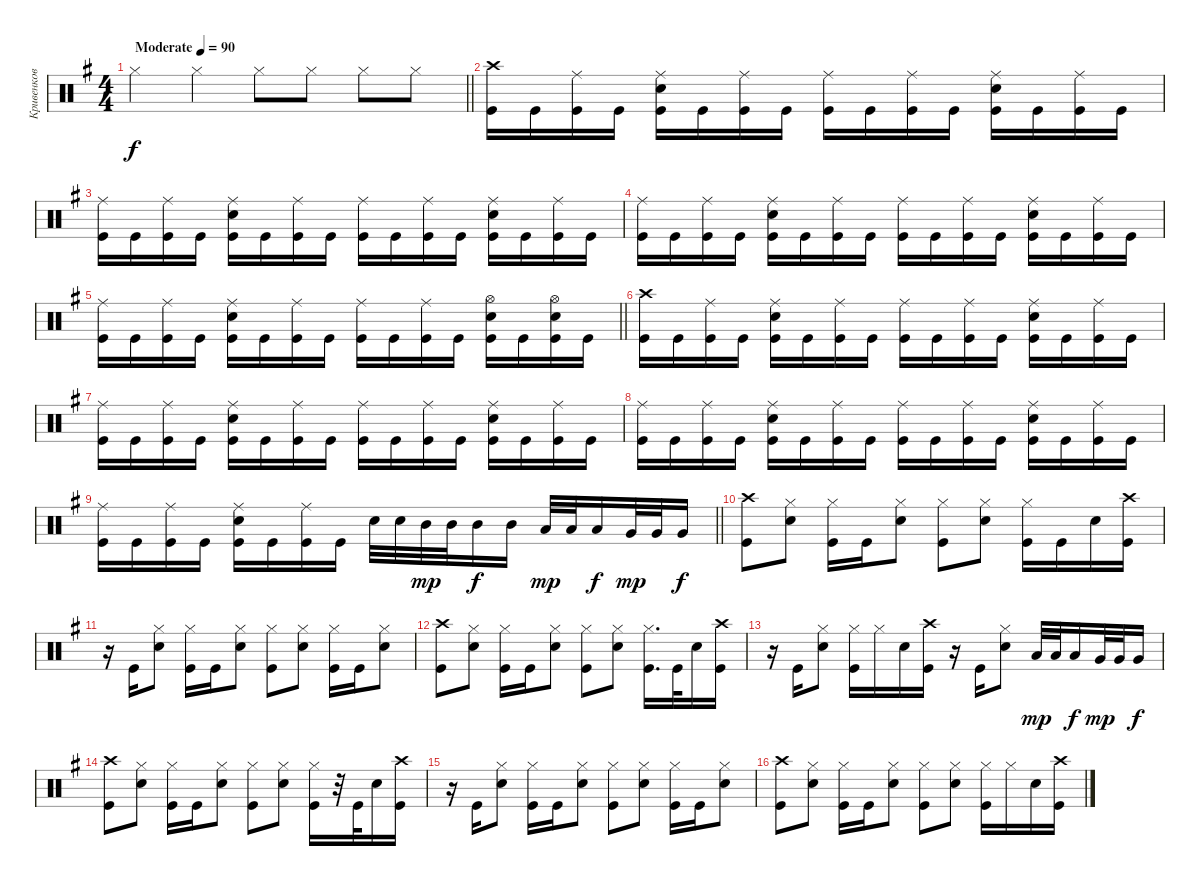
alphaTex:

\track ("Кривенков" "Кривенков") {instrument percussion}
\staff {score}
\articulation defaults
\ts (4 4)
\tempo (90 "Moderate")
\clef neutral
\barLineRight lightlight
\ks eminor "Hi-Hat (closed)".4{dy f} "Hi-Hat (closed)".4 "Hi-Hat (closed)".8 "Hi-Hat (closed)".8 "Hi-Hat (closed)".8 "Hi-Hat (closed)".8
|
("Kick (hit)" "Crash high (hit)").16 "Kick (hit)".16 ("Kick (hit)" "Ride (middle)").16 "Kick (hit)".16 ("Kick (hit)" "Ride (middle)" "Snare (hit) 2").16 "Kick (hit)".16 ("Kick (hit)" "Ride (middle)").16 "Kick (hit)".16 ("Kick (hit)" "Ride (middle)").16 "Kick (hit)".16 ("Kick (hit)" "Ride (middle)").16 "Kick (hit)".16 ("Kick (hit)" "Ride (middle)" "Snare (hit) 2").16 "Kick (hit)".16 ("Kick (hit)" "Ride (middle)").16 "Kick (hit)".16 |
("Kick (hit)" "Ride (middle)").16 "Kick (hit)".16 ("Kick (hit)" "Ride (middle)").16 "Kick (hit)".16 ("Kick (hit)" "Ride (middle)" "Snare (hit) 2").16 "Kick (hit)".16 ("Kick (hit)" "Ride (middle)").16 "Kick (hit)".16 ("Kick (hit)" "Ride (middle)").16 "Kick (hit)".16 ("Kick (hit)" "Ride (middle)").16 "Kick (hit)".16 ("Kick (hit)" "Ride (middle)" "Snare (hit) 2").16 "Kick (hit)".16 ("Kick (hit)" "Ride (middle)").16 "Kick (hit)".16 |
("Kick (hit)" "Ride (middle)").16 "Kick (hit)".16 ("Kick (hit)" "Ride (middle)").16 "Kick (hit)".16 ("Kick (hit)" "Ride (middle)" "Snare (hit) 2").16 "Kick (hit)".16 ("Kick (hit)" "Ride (middle)").16 "Kick (hit)".16 ("Kick (hit)" "Ride (middle)").16 "Kick (hit)".16 ("Kick (hit)" "Ride (middle)").16 "Kick (hit)".16 ("Kick (hit)" "Ride (middle)" "Snare (hit) 2").16 "Kick (hit)".16 ("Kick (hit)" "Ride (middle)").16 "Kick (hit)".16 |
\barLineRight lightlight
("Kick (hit)" "Ride (middle)").16 "Kick (hit)".16 ("Kick (hit)" "Ride (middle)").16 "Kick (hit)".16 ("Kick (hit)" "Ride (middle)" "Snare (hit) 2").16 "Kick (hit)".16 ("Kick (hit)" "Ride (middle)").16 "Kick (hit)".16 ("Kick (hit)" "Ride (middle)").16 "Kick (hit)".16 ("Kick (hit)" "Ride (middle)").16 "Kick (hit)".16 ("Kick (hit)" "Hi-Hat (open)" "Snare (hit) 2").16 "Kick (hit)".16 ("Kick (hit)" "Snare (hit) 2" "Hi-Hat (open)").16 "Kick (hit)".16 |
("Kick (hit)" "Crash high (hit)").16 "Kick (hit)".16 ("Kick (hit)" "Ride (middle)").16 "Kick (hit)".16 ("Kick (hit)" "Ride (middle)" "Snare (hit) 2").16 "Kick (hit)".16 ("Kick (hit)" "Ride (middle)").16 "Kick (hit)".16 ("Kick (hit)" "Ride (middle)").16 "Kick (hit)".16 ("Kick (hit)" "Ride (middle)").16 "Kick (hit)".16 ("Kick (hit)" "Ride (middle)" "Snare (hit) 2").16 "Kick (hit)".16 ("Kick (hit)" "Ride (middle)").16 "Kick (hit)".16 |
("Kick (hit)" "Ride (middle)").16 "Kick (hit)".16 ("Kick (hit)" "Ride (middle)").16 "Kick (hit)".16 ("Kick (hit)" "Ride (middle)" "Snare (hit) 2").16 "Kick (hit)".16 ("Kick (hit)" "Ride (middle)").16 "Kick (hit)".16 ("Kick (hit)" "Ride (middle)").16 "Kick (hit)".16 ("Kick (hit)" "Ride (middle)").16 "Kick (hit)".16 ("Kick (hit)" "Ride (middle)" "Snare (hit) 2").16 "Kick (hit)".16 ("Kick (hit)" "Ride (middle)").16 "Kick (hit)".16 |
("Kick (hit)" "Ride (middle)").16 "Kick (hit)".16 ("Kick (hit)" "Ride (middle)").16 "Kick (hit)".16 ("Kick (hit)" "Ride (middle)" "Snare (hit) 2").16 "Kick (hit)".16 ("Kick (hit)" "Ride (middle)").16 "Kick (hit)".16 ("Kick (hit)" "Ride (middle)").16 "Kick (hit)".16 ("Kick (hit)" "Ride (middle)").16 "Kick (hit)".16 ("Kick (hit)" "Ride (middle)" "Snare (hit) 2").16 "Kick (hit)".16 ("Kick (hit)" "Ride (middle)").16 "Kick (hit)".16 |
\barLineRight lightlight
("Kick (hit)" "Ride (middle)").16 "Kick (hit)".16 ("Kick (hit)" "Ride (middle)").16 "Kick (hit)".16 ("Kick (hit)" "Ride (middle)" "Snare (hit) 2").16 "Kick (hit)".16 ("Kick (hit)" "Ride (middle)").16 "Kick (hit)".16 "Snare (hit) 2".32 "Snare (hit) 2".32 "Mid Tom (hit)".32{dy mp} "Mid Tom (hit)".32 "Mid Tom (hit)".16{dy f} "Mid Tom (hit)".16 "Low Tom (hit)".32{dy mp} "Low Tom (hit)".32 "Low Tom (hit)".16{dy f} "Very Low Tom (hit)".32{dy mp} "Very Low Tom (hit)".32 "Very Low Tom (hit)".16{dy f} |
("Kick (hit)" "Crash high (hit)").8 ("Snare (hit) 2" "Hi-Hat (closed)").8 ("Kick (hit)" "Hi-Hat (closed)").16 "Kick (hit)".16 ("Snare (hit) 2" "Hi-Hat (closed)").8 ("Kick (hit)" "Hi-Hat (closed)").8 ("Snare (hit) 2" "Hi-Hat (closed)").8 ("Kick (hit)" "Hi-Hat (closed)").16 "Kick (hit)".16 "Snare (hit) 2".16 ("Kick (hit)" "Crash high (hit)").16 |
r.16 "Kick (hit)".16 ("Snare (hit) 2" "Hi-Hat (closed)").8 ("Kick (hit)" "Hi-Hat (closed)").16 "Kick (hit)".16 ("Snare (hit) 2" "Hi-Hat (closed)").8 ("Kick (hit)" "Hi-Hat (closed)").8 ("Snare (hit) 2" "Hi-Hat (closed)").8 ("Kick (hit)" "Hi-Hat (closed)").16 "Kick (hit)".16 ("Snare (hit) 2" "Hi-Hat (closed)").8 |
("Kick (hit)" "Crash high (hit)").8 ("Snare (hit) 2" "Hi-Hat (closed)").8 ("Kick (hit)" "Hi-Hat (closed)").16 "Kick (hit)".16 ("Snare (hit) 2" "Hi-Hat (closed)").8 ("Kick (hit)" "Hi-Hat (closed)").8 ("Snare (hit) 2" "Hi-Hat (closed)").8 ("Kick (hit)" "Hi-Hat (closed)").16{d} "Kick (hit)".32 "Snare (hit) 2".16 ("Kick (hit)" "Crash high (hit)").16 |
r.16 "Kick (hit)".16 ("Snare (hit) 2" "Hi-Hat (closed)").8 ("Kick (hit)" "Hi-Hat (closed)").16 "Hi-Hat (closed)".16 "Snare (hit) 2".16 ("Kick (hit)" "Crash high (hit)").16 r.16 "Kick (hit)".16 ("Snare (hit) 2" "Hi-Hat (closed)").8 "Low Tom (hit)".32{dy mp} "Low Tom (hit)".32 "Low Tom (hit)".16{dy f} "Very Low Tom (hit)".32{dy mp} "Very Low Tom (hit)".32 "Very Low Tom (hit)".16{dy f} |
("Kick (hit)" "Crash high (hit)").8 ("Snare (hit) 2" "Hi-Hat (closed)").8 ("Kick (hit)" "Hi-Hat (closed)").16 "Kick (hit)".16 ("Snare (hit) 2" "Hi-Hat (closed)").8 ("Kick (hit)" "Hi-Hat (closed)").8 ("Snare (hit) 2" "Hi-Hat (closed)").8 ("Kick (hit)" "Hi-Hat (closed)").16 r.32 "Kick (hit)".32 "Snare (hit) 2".16 ("Kick (hit)" "Crash high (hit)").16 |
r.16 "Kick (hit)".16 ("Snare (hit) 2" "Hi-Hat (closed)").8 ("Kick (hit)" "Hi-Hat (closed)").16 "Kick (hit)".16 ("Snare (hit) 2" "Hi-Hat (closed)").8 ("Kick (hit)" "Hi-Hat (closed)").8 ("Snare (hit) 2" "Hi-Hat (closed)").8 ("Kick (hit)" "Hi-Hat (closed)").16 "Kick (hit)".16 ("Snare (hit) 2" "Hi-Hat (closed)").8 |
("Kick (hit)" "Crash high (hit)").8 ("Snare (hit) 2" "Hi-Hat (closed)").8 ("Kick (hit)" "Hi-Hat (closed)").16 "Kick (hit)".16 ("Snare (hit) 2" "Hi-Hat (closed)").8 ("Kick (hit)" "Hi-Hat (closed)").8 ("Snare (hit) 2" "Hi-Hat (closed)").8 ("Kick (hit)" "Hi-Hat (closed)").16 "Hi-Hat (closed)".16 "Snare (hit) 2".16 ("Kick (hit)" "Crash high (hit)").16
